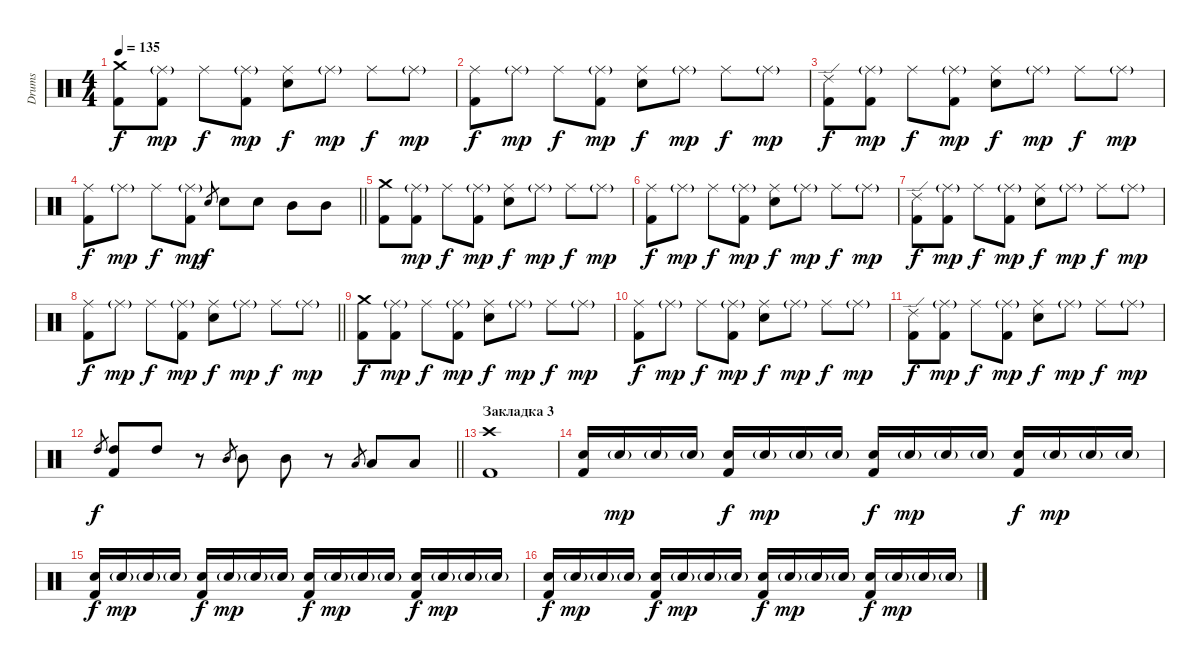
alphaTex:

\track ("Drums" "Drums") {instrument percussion}
\staff {score}
\articulation defaults
\ts (4 4)
\tempo 135
\clef neutral
\ks c
("Crash medium (hit)" "Kick (hit) 2").8{dy f} ("Ride (middle)"{g} "Kick (hit) 2").8{dy mp} "Ride (middle)".8{dy f} ("Ride (middle)"{g} "Kick (hit) 2").8{dy mp} ("Ride (middle)" "Electric Snare (hit)").8{dy f} "Ride (middle)"{g}.8{dy mp} "Ride (middle)".8{dy f} "Ride (middle)"{g}.8{dy mp} |
("Kick (hit) 2" "Ride (middle)").8{dy f} "Ride (middle)"{g}.8{dy mp} "Ride (middle)".8{dy f} ("Kick (hit) 2" "Ride (middle)"{g}).8{dy mp} ("Electric Snare (hit)" "Ride (middle)").8{dy f} "Ride (middle)"{g}.8{dy mp} "Ride (middle)".8{dy f} "Ride (middle)"{g}.8{dy mp} |
("Ride (edge) 2" "Kick (hit) 2").8{dy f} ("Ride (middle)"{g} "Kick (hit) 2").8{dy mp} "Ride (middle)".8{dy f} ("Ride (middle)"{g} "Kick (hit) 2").8{dy mp} ("Ride (middle)" "Electric Snare (hit)").8{dy f} "Ride (middle)"{g}.8{dy mp} "Ride (middle)".8{dy f} "Ride (middle)"{g}.8{dy mp} |
\barLineRight lightlight
("Kick (hit) 2" "Ride (middle)").8{dy f} "Ride (middle)"{g}.8{dy mp} "Ride (middle)".8{dy f} ("Kick (hit) 2" "Ride (middle)"{g}).8{dy mp} "Electric Snare (hit)".8{gr dy f} "Electric Snare (hit)".8 "Electric Snare (hit)".8 "Mid Tom (hit)".8 "Mid Tom (hit)".8 |
\section ("" "")
("Crash medium (hit)" "Kick (hit) 2").8 ("Ride (middle)"{g} "Kick (hit) 2").8{dy mp} "Ride (middle)".8{dy f} ("Ride (middle)"{g} "Kick (hit) 2").8{dy mp} ("Ride (middle)" "Electric Snare (hit)").8{dy f} "Ride (middle)"{g}.8{dy mp} "Ride (middle)".8{dy f} "Ride (middle)"{g}.8{dy mp} |
("Kick (hit) 2" "Ride (middle)").8{dy f} "Ride (middle)"{g}.8{dy mp} "Ride (middle)".8{dy f} ("Kick (hit) 2" "Ride (middle)"{g}).8{dy mp} ("Electric Snare (hit)" "Ride (middle)").8{dy f} "Ride (middle)"{g}.8{dy mp} "Ride (middle)".8{dy f} "Ride (middle)"{g}.8{dy mp} |
("Ride (edge) 2" "Kick (hit) 2").8{dy f} ("Ride (middle)"{g} "Kick (hit) 2").8{dy mp} "Ride (middle)".8{dy f} ("Ride (middle)"{g} "Kick (hit) 2").8{dy mp} ("Ride (middle)" "Electric Snare (hit)").8{dy f} "Ride (middle)"{g}.8{dy mp} "Ride (middle)".8{dy f} "Ride (middle)"{g}.8{dy mp} |
\barLineRight lightlight
("Kick (hit) 2" "Ride (middle)").8{dy f} "Ride (middle)"{g}.8{dy mp} "Ride (middle)".8{dy f} ("Kick (hit) 2" "Ride (middle)"{g}).8{dy mp} ("Electric Snare (hit)" "Ride (middle)").8{dy f} "Ride (middle)"{g}.8{dy mp} "Ride (middle)".8{dy f} "Ride (middle)"{g}.8{dy mp} |
("Crash medium (hit)" "Kick (hit) 2").8{dy f} ("Ride (middle)"{g} "Kick (hit) 2").8{dy mp} "Ride (middle)".8{dy f} ("Ride (middle)"{g} "Kick (hit) 2").8{dy mp} ("Ride (middle)" "Electric Snare (hit)").8{dy f} "Ride (middle)"{g}.8{dy mp} "Ride (middle)".8{dy f} "Ride (middle)"{g}.8{dy mp} |
("Kick (hit) 2" "Ride (middle)").8{dy f} "Ride (middle)"{g}.8{dy mp} "Ride (middle)".8{dy f} ("Kick (hit) 2" "Ride (middle)"{g}).8{dy mp} ("Electric Snare (hit)" "Ride (middle)").8{dy f} "Ride (middle)"{g}.8{dy mp} "Ride (middle)".8{dy f} "Ride (middle)"{g}.8{dy mp} |
("Ride (edge) 2" "Kick (hit) 2").8{dy f} ("Ride (middle)"{g} "Kick (hit) 2").8{dy mp} "Ride (middle)".8{dy f} ("Ride (middle)"{g} "Kick (hit) 2").8{dy mp} ("Ride (middle)" "Electric Snare (hit)").8{dy f} "Ride (middle)"{g}.8{dy mp} "Ride (middle)".8{dy f} "Ride (middle)"{g}.8{dy mp} |
\barLineRight lightlight "High Tom (hit)".8{gr dy f}
("Kick (hit) 2" "High Tom (hit)").8 "High Tom (hit)".8 r.8 "Mid Tom (hit)".8{gr} "Mid Tom (hit)".8 "Mid Tom (hit)".8 r.8 "Low Tom (hit)".8{gr} "Low Tom (hit)".8 "Low Tom (hit)".8 |
\section ("" "Закладка 3")
("Crash high (hit)" "Kick (hit) 2").1 |
("Electric Snare (hit)" "Kick (hit) 2").16{volume 0} "Electric Snare (hit)"{g}.16{dy mp volume 9} "Electric Snare (hit)"{g}.16 "Electric Snare (hit)"{g}.16 ("Electric Snare (hit)" "Kick (hit) 2").16{dy f} "Electric Snare (hit)"{g}.16{dy mp} "Electric Snare (hit)"{g}.16 "Electric Snare (hit)"{g}.16 ("Electric Snare (hit)" "Kick (hit) 2").16{dy f} "Electric Snare (hit)"{g}.16{dy mp} "Electric Snare (hit)"{g}.16 "Electric Snare (hit)"{g}.16 ("Electric Snare (hit)" "Kick (hit) 2").16{dy f} "Electric Snare (hit)"{g}.16{dy mp} "Electric Snare (hit)"{g}.16 "Electric Snare (hit)"{g}.16 |
("Electric Snare (hit)" "Kick (hit) 2").16{dy f} "Electric Snare (hit)"{g}.16{dy mp} "Electric Snare (hit)"{g}.16 "Electric Snare (hit)"{g}.16 ("Electric Snare (hit)" "Kick (hit) 2").16{dy f} "Electric Snare (hit)"{g}.16{dy mp} "Electric Snare (hit)"{g}.16 "Electric Snare (hit)"{g}.16 ("Electric Snare (hit)" "Kick (hit) 2").16{dy f} "Electric Snare (hit)"{g}.16{dy mp} "Electric Snare (hit)"{g}.16 "Electric Snare (hit)"{g}.16 ("Electric Snare (hit)" "Kick (hit) 2").16{dy f} "Electric Snare (hit)"{g}.16{dy mp} "Electric Snare (hit)"{g}.16 "Electric Snare (hit)"{g}.16 |
("Electric Snare (hit)" "Kick (hit) 2").16{dy f} "Electric Snare (hit)"{g}.16{dy mp} "Electric Snare (hit)"{g}.16 "Electric Snare (hit)"{g}.16 ("Electric Snare (hit)" "Kick (hit) 2").16{dy f} "Electric Snare (hit)"{g}.16{dy mp} "Electric Snare (hit)"{g}.16 "Electric Snare (hit)"{g}.16 ("Electric Snare (hit)" "Kick (hit) 2").16{dy f} "Electric Snare (hit)"{g}.16{dy mp} "Electric Snare (hit)"{g}.16 "Electric Snare (hit)"{g}.16 ("Electric Snare (hit)" "Kick (hit) 2").16{dy f} "Electric Snare (hit)"{g}.16{dy mp} "Electric Snare (hit)"{g}.16 "Electric Snare (hit)"{g}.16
